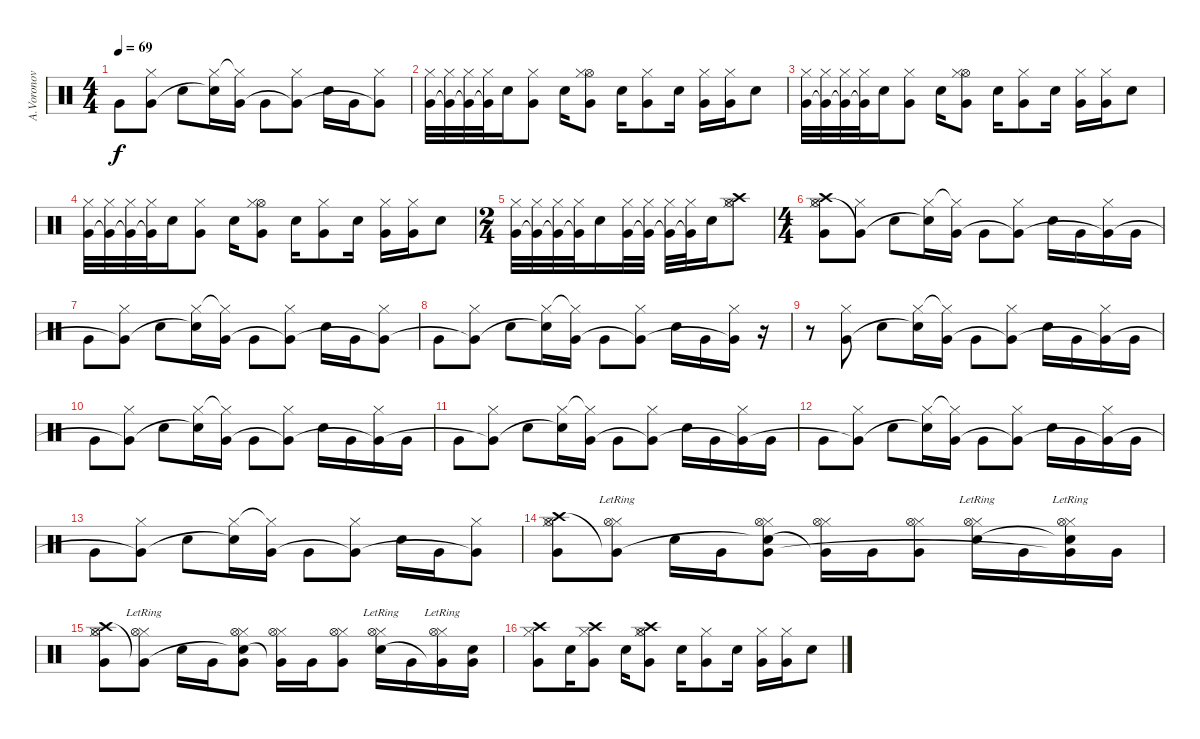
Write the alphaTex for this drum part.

\track ("A.Voronov - Drumzzz" "A.Voronov ") {instrument percussion}
\staff {score}
\articulation defaults
\ts (4 4)
\tempo 69
\clef neutral
\ks c "Very Low Tom (hit)".8{dy f}
("Hi-Hat (closed)" "Very Low Tom (hit)"{t}).8 "Electric Snare (hit)".8 ("Hi-Hat (closed)" "Electric Snare (hit)"{t}).16 ("Hi-Hat (closed)"{t} "Very Low Tom (hit)").16 "Very Low Tom (hit)".8 ("Hi-Hat (closed)" "Very Low Tom (hit)"{t}).8 "Electric Snare (hit)".16 "Very Low Tom (hit)".16 ("Hi-Hat (closed)" "Very Low Tom (hit)"{t}).8 |
("Hi-Hat (closed)" "Very Low Tom (hit)").32 ("Hi-Hat (closed)" "Very Low Tom (hit)"{t}).32 ("Hi-Hat (closed)" "Very Low Tom (hit)"{t}).32 ("Hi-Hat (closed)" "Very Low Tom (hit)"{t}).32 "Electric Snare (hit)".16 ("Hi-Hat (closed)" "Very Low Tom (hit)").8 "Electric Snare (hit)".16 ("Hi-Hat (open)" "Hi-Hat (closed)" "Very Low Tom (hit)").8 "Electric Snare (hit)".16 ("Hi-Hat (closed)" "Very Low Tom (hit)").8 "Electric Snare (hit)".16 ("Hi-Hat (closed)" "Very Low Tom (hit)").16 ("Hi-Hat (closed)" "Very Low Tom (hit)").16 "Electric Snare (hit)".8 |
("Hi-Hat (closed)" "Very Low Tom (hit)").32 ("Hi-Hat (closed)" "Very Low Tom (hit)"{t}).32 ("Hi-Hat (closed)" "Very Low Tom (hit)"{t}).32 ("Hi-Hat (closed)" "Very Low Tom (hit)"{t}).32 "Electric Snare (hit)".16 ("Hi-Hat (closed)" "Very Low Tom (hit)").8 "Electric Snare (hit)".16 ("Hi-Hat (open)" "Hi-Hat (closed)" "Very Low Tom (hit)").8 "Electric Snare (hit)".16 ("Hi-Hat (closed)" "Very Low Tom (hit)").8 "Electric Snare (hit)".16 ("Hi-Hat (closed)" "Very Low Tom (hit)").16 ("Hi-Hat (closed)" "Very Low Tom (hit)").16 "Electric Snare (hit)".8 |
("Hi-Hat (closed)" "Very Low Tom (hit)").32 ("Hi-Hat (closed)" "Very Low Tom (hit)"{t}).32 ("Hi-Hat (closed)" "Very Low Tom (hit)"{t}).32 ("Hi-Hat (closed)" "Very Low Tom (hit)"{t}).32 "Electric Snare (hit)".16 ("Hi-Hat (closed)" "Very Low Tom (hit)").8 "Electric Snare (hit)".16 ("Hi-Hat (open)" "Hi-Hat (closed)" "Very Low Tom (hit)").8 "Electric Snare (hit)".16 ("Hi-Hat (closed)" "Very Low Tom (hit)").8 "Electric Snare (hit)".16 ("Hi-Hat (closed)" "Very Low Tom (hit)").16 ("Hi-Hat (closed)" "Very Low Tom (hit)").16 "Electric Snare (hit)".8 |
\ts (2 4)
("Hi-Hat (closed)" "Very Low Tom (hit)").32 ("Hi-Hat (closed)" "Very Low Tom (hit)"{t}).32 ("Hi-Hat (closed)" "Very Low Tom (hit)"{t}).32 ("Hi-Hat (closed)" "Very Low Tom (hit)"{t}).32 "Electric Snare (hit)".16 ("Hi-Hat (closed)" "Very Low Tom (hit)").32 ("Hi-Hat (closed)" "Very Low Tom (hit)"{t}).32 ("Hi-Hat (closed)" "Very Low Tom (hit)"{t}).32 ("Hi-Hat (closed)" "Very Low Tom (hit)"{t}).32 "Electric Snare (hit)".16 ("Hi-Hat (open)" "Hi-Hat (closed)" "Crash high (hit)").8 |
\ts (4 4)
("Hi-Hat (open)" "Hi-Hat (closed)" "Crash high (hit)" "Very Low Tom (hit)").8 ("Hi-Hat (closed)" "Very Low Tom (hit)"{t}).8 "Electric Snare (hit)".8 ("Hi-Hat (closed)" "Electric Snare (hit)"{t}).16 ("Hi-Hat (closed)"{t} "Very Low Tom (hit)").16 "Very Low Tom (hit)".8 ("Hi-Hat (closed)" "Very Low Tom (hit)"{t}).8 "Electric Snare (hit)".16 "Very Low Tom (hit)".16 ("Hi-Hat (closed)" "Very Low Tom (hit)"{t}).16 "Very Low Tom (hit)".16 |
"Very Low Tom (hit)".8 ("Hi-Hat (closed)" "Very Low Tom (hit)"{t}).8 "Electric Snare (hit)".8 ("Hi-Hat (closed)" "Electric Snare (hit)"{t}).16 ("Hi-Hat (closed)"{t} "Very Low Tom (hit)").16 "Very Low Tom (hit)".8 ("Hi-Hat (closed)" "Very Low Tom (hit)"{t}).8 "Electric Snare (hit)".16 "Very Low Tom (hit)".16 ("Hi-Hat (closed)" "Very Low Tom (hit)"{t}).8 |
"Very Low Tom (hit)".8 ("Hi-Hat (closed)" "Very Low Tom (hit)"{t}).8 "Electric Snare (hit)".8 ("Hi-Hat (closed)" "Electric Snare (hit)"{t}).16 ("Hi-Hat (closed)"{t} "Very Low Tom (hit)").16 "Very Low Tom (hit)".8 ("Hi-Hat (closed)" "Very Low Tom (hit)"{t}).8 "Electric Snare (hit)".16 "Very Low Tom (hit)".16 ("Hi-Hat (closed)" "Very Low Tom (hit)"{t}).16 r.16 |
r.8 ("Hi-Hat (closed)" "Very Low Tom (hit)").8 "Electric Snare (hit)".8 ("Hi-Hat (closed)" "Electric Snare (hit)"{t}).16 ("Hi-Hat (closed)"{t} "Very Low Tom (hit)").16 "Very Low Tom (hit)".8 ("Hi-Hat (closed)" "Very Low Tom (hit)"{t}).8 "Electric Snare (hit)".16 "Very Low Tom (hit)".16 ("Hi-Hat (closed)" "Very Low Tom (hit)"{t}).16 "Very Low Tom (hit)".16 |
"Very Low Tom (hit)".8 ("Hi-Hat (closed)" "Very Low Tom (hit)"{t}).8 "Electric Snare (hit)".8 ("Hi-Hat (closed)" "Electric Snare (hit)"{t}).16 ("Hi-Hat (closed)"{t} "Very Low Tom (hit)").16 "Very Low Tom (hit)".8 ("Hi-Hat (closed)" "Very Low Tom (hit)"{t}).8 "Electric Snare (hit)".16 "Very Low Tom (hit)".16 ("Hi-Hat (closed)" "Very Low Tom (hit)"{t}).16 "Very Low Tom (hit)".16 |
"Very Low Tom (hit)".8 ("Hi-Hat (closed)" "Very Low Tom (hit)"{t}).8 "Electric Snare (hit)".8 ("Hi-Hat (closed)" "Electric Snare (hit)"{t}).16 ("Hi-Hat (closed)"{t} "Very Low Tom (hit)").16 "Very Low Tom (hit)".8 ("Hi-Hat (closed)" "Very Low Tom (hit)"{t}).8 "Electric Snare (hit)".16 "Very Low Tom (hit)".16 ("Hi-Hat (closed)" "Very Low Tom (hit)"{t}).16 "Very Low Tom (hit)".16 |
"Very Low Tom (hit)".8 ("Hi-Hat (closed)" "Very Low Tom (hit)"{t}).8 "Electric Snare (hit)".8 ("Hi-Hat (closed)" "Electric Snare (hit)"{t}).16 ("Hi-Hat (closed)"{t} "Very Low Tom (hit)").16 "Very Low Tom (hit)".8 ("Hi-Hat (closed)" "Very Low Tom (hit)"{t}).8 "Electric Snare (hit)".16 "Very Low Tom (hit)".16 ("Hi-Hat (closed)" "Very Low Tom (hit)"{t}).16 "Very Low Tom (hit)".16 |
"Very Low Tom (hit)".8 ("Hi-Hat (closed)" "Very Low Tom (hit)"{t}).8 "Electric Snare (hit)".8 ("Hi-Hat (closed)" "Electric Snare (hit)"{t}).16 ("Hi-Hat (closed)"{t} "Very Low Tom (hit)").16 "Very Low Tom (hit)".8 ("Hi-Hat (closed)" "Very Low Tom (hit)"{t}).8 "Electric Snare (hit)".16 "Very Low Tom (hit)".16 ("Hi-Hat (closed)" "Very Low Tom (hit)"{t}).8 |
("Hi-Hat (open)" "Hi-Hat (closed)" "Crash high (hit)" "Very Low Tom (hit)").8 ("Hi-Hat (closed)"{lr} "Hi-Hat (open)"{lr} "Very Low Tom (hit)"{t}).8 "Electric Snare (hit)".16 "Very Low Tom (hit)".16 ("Hi-Hat (closed)" "Hi-Hat (open)" "Electric Snare (hit)"{t} "Very Low Tom (hit)").8 ("Hi-Hat (closed)" "Hi-Hat (open)" "Very Low Tom (hit)"{t}).16 "Very Low Tom (hit)".16 ("Hi-Hat (closed)" "Hi-Hat (open)" "Very Low Tom (hit)").8 ("Hi-Hat (closed)"{lr} "Hi-Hat (open)"{lr} "Electric Snare (hit)").16 "Very Low Tom (hit)".16 ("Hi-Hat (closed)"{lr} "Hi-Hat (open)"{lr} "Electric Snare (hit)"{t} "Very Low Tom (hit)"{t}).16 "Very Low Tom (hit)".16 |
("Hi-Hat (open)" "Hi-Hat (closed)" "Crash high (hit)" "Very Low Tom (hit)").8 ("Hi-Hat (closed)"{lr} "Hi-Hat (open)"{lr} "Very Low Tom (hit)"{t}).8 "Electric Snare (hit)".16 "Very Low Tom (hit)".16 ("Hi-Hat (closed)" "Hi-Hat (open)" "Electric Snare (hit)"{t} "Very Low Tom (hit)").8 ("Hi-Hat (closed)" "Hi-Hat (open)" "Very Low Tom (hit)"{t}).16 "Very Low Tom (hit)".16 ("Hi-Hat (closed)" "Hi-Hat (open)" "Very Low Tom (hit)").8 ("Hi-Hat (closed)"{lr} "Hi-Hat (open)"{lr} "Electric Snare (hit)").16 "Very Low Tom (hit)".16 ("Hi-Hat (closed)"{lr} "Hi-Hat (open)"{lr} "Very Low Tom (hit)"{t}).16 ("Electric Snare (hit)" "Very Low Tom (hit)").16 |
("Crash high (hit)" "Hi-Hat (closed)" "Very Low Tom (hit)").8 "Electric Snare (hit)".16 ("Crash high (hit)" "Hi-Hat (closed)" "Very Low Tom (hit)").8 "Electric Snare (hit)".16 ("Crash high (hit)" "Hi-Hat (open)" "Hi-Hat (closed)" "Very Low Tom (hit)").8 "Electric Snare (hit)".16 ("Hi-Hat (closed)" "Very Low Tom (hit)").8 "Electric Snare (hit)".16 ("Hi-Hat (closed)" "Very Low Tom (hit)").16 ("Hi-Hat (closed)" "Very Low Tom (hit)").16 "Electric Snare (hit)".8
